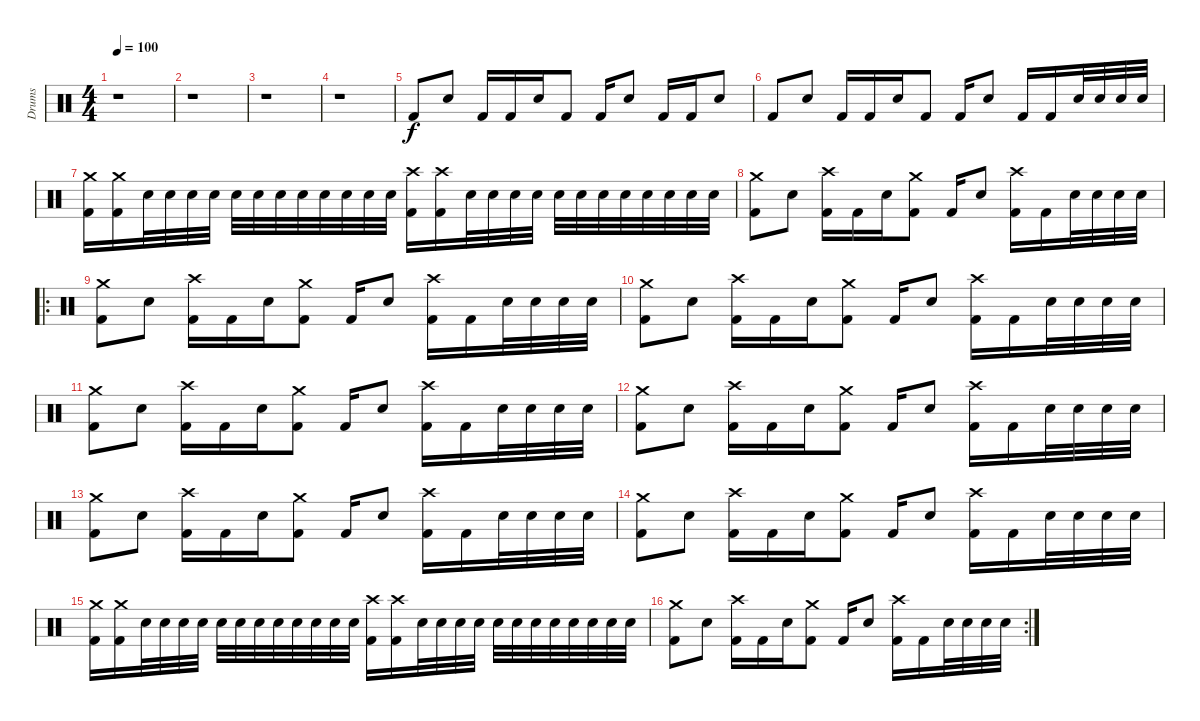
\track ("Drums" "Drums") {instrument percussion}
\staff {score}
\articulation defaults
\ts (4 4)
\tempo 100
\clef neutral
\ks c
r.1{dy f} |
r.1 |
r.1 |
r.1 |
"Kick (hit) 2".8 "Snare (hit) 2".8 "Kick (hit) 2".16 "Kick (hit) 2".16 "Snare (hit) 2".16 "Kick (hit) 2".8 "Kick (hit) 2".16 "Snare (hit) 2".8 "Kick (hit) 2".16 "Kick (hit) 2".16 "Snare (hit) 2".8 |
"Kick (hit) 2".8 "Snare (hit) 2".8 "Kick (hit) 2".16 "Kick (hit) 2".16 "Snare (hit) 2".16 "Kick (hit) 2".8 "Kick (hit) 2".16 "Snare (hit) 2".8 "Kick (hit) 2".16 "Kick (hit) 2".16 "Snare (hit) 2".32 "Snare (hit) 2".32 "Snare (hit) 2".32 "Snare (hit) 2".32 |
("Crash medium (hit)" "Kick (hit) 2").16 ("Crash medium (hit)" "Kick (hit) 2").16 "Snare (hit) 2".32 "Snare (hit) 2".32 "Snare (hit) 2".32 "Snare (hit) 2".32 "Snare (hit) 2".32 "Snare (hit) 2".32 "Snare (hit) 2".32 "Snare (hit) 2".32 "Snare (hit) 2".32 "Snare (hit) 2".32 "Snare (hit) 2".32 "Snare (hit) 2".32 ("Crash high (hit)" "Kick (hit) 2").16 ("Crash high (hit)" "Kick (hit) 2").16 "Snare (hit) 2".32 "Snare (hit) 2".32 "Snare (hit) 2".32 "Snare (hit) 2".32 "Snare (hit) 2".32 "Snare (hit) 2".32 "Snare (hit) 2".32 "Snare (hit) 2".32 "Snare (hit) 2".32 "Snare (hit) 2".32 "Snare (hit) 2".32 "Snare (hit) 2".32 |
("Crash medium (hit)" "Kick (hit) 2").8 "Snare (hit) 2".8 ("Crash high (hit)" "Kick (hit) 2").16 "Kick (hit) 2".16 "Snare (hit) 2".16 ("Crash medium (hit)" "Kick (hit) 2").8 "Kick (hit) 2".16 "Snare (hit) 2".8 ("Crash high (hit)" "Kick (hit) 2").16 "Kick (hit) 2".16 "Snare (hit) 2".32 "Snare (hit) 2".32 "Snare (hit) 2".32 "Snare (hit) 2".32 |
\ro
("Crash medium (hit)" "Kick (hit) 2").8 "Snare (hit) 2".8 ("Crash high (hit)" "Kick (hit) 2").16 "Kick (hit) 2".16 "Snare (hit) 2".16 ("Crash medium (hit)" "Kick (hit) 2").8 "Kick (hit) 2".16 "Snare (hit) 2".8 ("Crash high (hit)" "Kick (hit) 2").16 "Kick (hit) 2".16 "Snare (hit) 2".32 "Snare (hit) 2".32 "Snare (hit) 2".32 "Snare (hit) 2".32 |
("Crash medium (hit)" "Kick (hit) 2").8 "Snare (hit) 2".8 ("Crash high (hit)" "Kick (hit) 2").16 "Kick (hit) 2".16 "Snare (hit) 2".16 ("Crash medium (hit)" "Kick (hit) 2").8 "Kick (hit) 2".16 "Snare (hit) 2".8 ("Crash high (hit)" "Kick (hit) 2").16 "Kick (hit) 2".16 "Snare (hit) 2".32 "Snare (hit) 2".32 "Snare (hit) 2".32 "Snare (hit) 2".32 |
("Crash medium (hit)" "Kick (hit) 2").8 "Snare (hit) 2".8 ("Crash high (hit)" "Kick (hit) 2").16 "Kick (hit) 2".16 "Snare (hit) 2".16 ("Crash medium (hit)" "Kick (hit) 2").8 "Kick (hit) 2".16 "Snare (hit) 2".8 ("Crash high (hit)" "Kick (hit) 2").16 "Kick (hit) 2".16 "Snare (hit) 2".32 "Snare (hit) 2".32 "Snare (hit) 2".32 "Snare (hit) 2".32 |
("Crash medium (hit)" "Kick (hit) 2").8 "Snare (hit) 2".8 ("Crash high (hit)" "Kick (hit) 2").16 "Kick (hit) 2".16 "Snare (hit) 2".16 ("Crash medium (hit)" "Kick (hit) 2").8 "Kick (hit) 2".16 "Snare (hit) 2".8 ("Crash high (hit)" "Kick (hit) 2").16 "Kick (hit) 2".16 "Snare (hit) 2".32 "Snare (hit) 2".32 "Snare (hit) 2".32 "Snare (hit) 2".32 |
("Crash medium (hit)" "Kick (hit) 2").8 "Snare (hit) 2".8 ("Crash high (hit)" "Kick (hit) 2").16 "Kick (hit) 2".16 "Snare (hit) 2".16 ("Crash medium (hit)" "Kick (hit) 2").8 "Kick (hit) 2".16 "Snare (hit) 2".8 ("Crash high (hit)" "Kick (hit) 2").16 "Kick (hit) 2".16 "Snare (hit) 2".32 "Snare (hit) 2".32 "Snare (hit) 2".32 "Snare (hit) 2".32 |
("Crash medium (hit)" "Kick (hit) 2").8 "Snare (hit) 2".8 ("Crash high (hit)" "Kick (hit) 2").16 "Kick (hit) 2".16 "Snare (hit) 2".16 ("Crash medium (hit)" "Kick (hit) 2").8 "Kick (hit) 2".16 "Snare (hit) 2".8 ("Crash high (hit)" "Kick (hit) 2").16 "Kick (hit) 2".16 "Snare (hit) 2".32 "Snare (hit) 2".32 "Snare (hit) 2".32 "Snare (hit) 2".32 |
("Crash medium (hit)" "Kick (hit) 2").16 ("Crash medium (hit)" "Kick (hit) 2").16 "Snare (hit) 2".32 "Snare (hit) 2".32 "Snare (hit) 2".32 "Snare (hit) 2".32 "Snare (hit) 2".32 "Snare (hit) 2".32 "Snare (hit) 2".32 "Snare (hit) 2".32 "Snare (hit) 2".32 "Snare (hit) 2".32 "Snare (hit) 2".32 "Snare (hit) 2".32 ("Crash high (hit)" "Kick (hit) 2").16 ("Crash high (hit)" "Kick (hit) 2").16 "Snare (hit) 2".32 "Snare (hit) 2".32 "Snare (hit) 2".32 "Snare (hit) 2".32 "Snare (hit) 2".32 "Snare (hit) 2".32 "Snare (hit) 2".32 "Snare (hit) 2".32 "Snare (hit) 2".32 "Snare (hit) 2".32 "Snare (hit) 2".32 "Snare (hit) 2".32 |
\rc 2
("Crash medium (hit)" "Kick (hit) 2").8 "Snare (hit) 2".8 ("Crash high (hit)" "Kick (hit) 2").16 "Kick (hit) 2".16 "Snare (hit) 2".16 ("Crash medium (hit)" "Kick (hit) 2").8 "Kick (hit) 2".16 "Snare (hit) 2".8 ("Crash high (hit)" "Kick (hit) 2").16 "Kick (hit) 2".16 "Snare (hit) 2".32 "Snare (hit) 2".32 "Snare (hit) 2".32 "Snare (hit) 2".32
